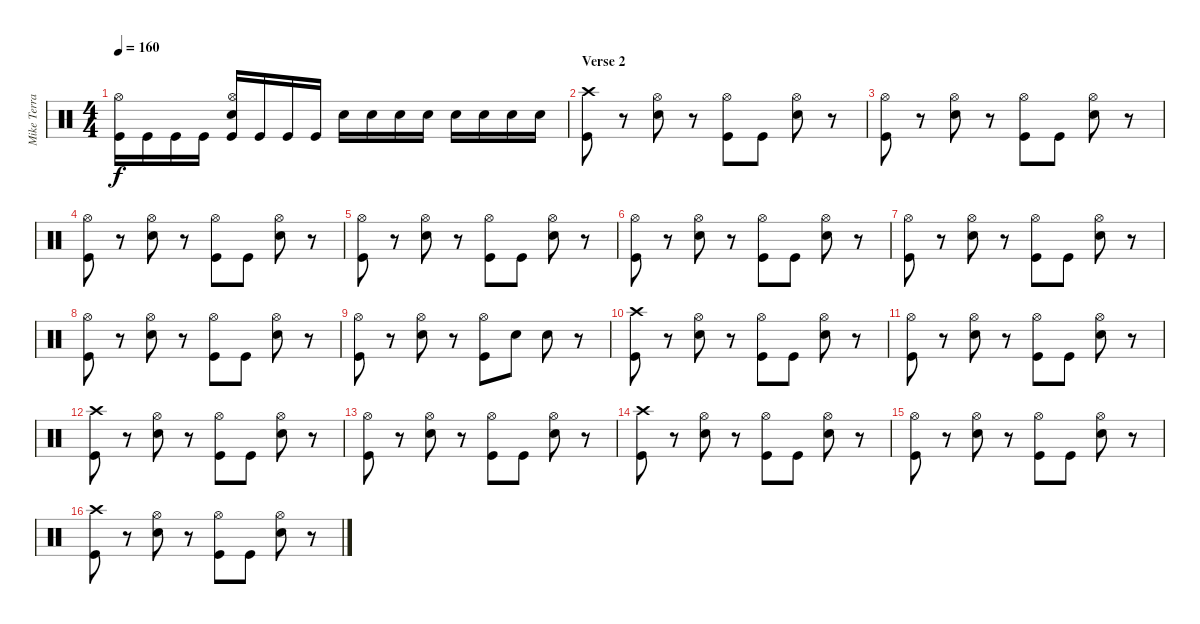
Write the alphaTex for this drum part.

\track ("Mike Terrana - Drums" "Mike Terra") {instrument percussion}
\staff {score}
\articulation defaults
\ts (4 4)
\tempo 160
\clef neutral
\ks c
("Kick (hit)" "Hi-Hat (open)").16{dy f} "Kick (hit)".16 "Kick (hit)".16 "Kick (hit)".16 ("Kick (hit)" "Electric Snare (hit)" "Hi-Hat (open)").16 "Kick (hit)".16 "Kick (hit)".16 "Kick (hit)".16 "Electric Snare (hit)".16 "Electric Snare (hit)".16 "Electric Snare (hit)".16 "Electric Snare (hit)".16 "Electric Snare (hit)".16 "Electric Snare (hit)".16 "Electric Snare (hit)".16 "Electric Snare (hit)".16 |
\section ("" "Verse 2")
("Kick (hit)" "Crash high (hit)").8 r.8 ("Electric Snare (hit)" "Hi-Hat (open)").8 r.8 ("Kick (hit)" "Hi-Hat (open)").8 "Kick (hit)".8 ("Electric Snare (hit)" "Hi-Hat (open)").8 r.8 |
("Kick (hit)" "Hi-Hat (open)").8 r.8 ("Electric Snare (hit)" "Hi-Hat (open)").8 r.8 ("Kick (hit)" "Hi-Hat (open)").8 "Kick (hit)".8 ("Electric Snare (hit)" "Hi-Hat (open)").8 r.8 |
("Kick (hit)" "Hi-Hat (open)").8 r.8 ("Electric Snare (hit)" "Hi-Hat (open)").8 r.8 ("Kick (hit)" "Hi-Hat (open)").8 "Kick (hit)".8 ("Electric Snare (hit)" "Hi-Hat (open)").8 r.8 |
("Kick (hit)" "Hi-Hat (open)").8 r.8 ("Electric Snare (hit)" "Hi-Hat (open)").8 r.8 ("Kick (hit)" "Hi-Hat (open)").8 "Kick (hit)".8 ("Electric Snare (hit)" "Hi-Hat (open)").8 r.8 |
("Kick (hit)" "Hi-Hat (open)").8 r.8 ("Electric Snare (hit)" "Hi-Hat (open)").8 r.8 ("Kick (hit)" "Hi-Hat (open)").8 "Kick (hit)".8 ("Electric Snare (hit)" "Hi-Hat (open)").8 r.8 |
("Kick (hit)" "Hi-Hat (open)").8 r.8 ("Electric Snare (hit)" "Hi-Hat (open)").8 r.8 ("Kick (hit)" "Hi-Hat (open)").8 "Kick (hit)".8 ("Electric Snare (hit)" "Hi-Hat (open)").8 r.8 |
("Kick (hit)" "Hi-Hat (open)").8 r.8 ("Electric Snare (hit)" "Hi-Hat (open)").8 r.8 ("Kick (hit)" "Hi-Hat (open)").8 "Kick (hit)".8 ("Electric Snare (hit)" "Hi-Hat (open)").8 r.8 |
("Kick (hit)" "Hi-Hat (open)").8 r.8 ("Electric Snare (hit)" "Hi-Hat (open)").8 r.8 ("Kick (hit)" "Hi-Hat (open)").8 "Electric Snare (hit)".8 "Electric Snare (hit)".8 r.8 |
("Kick (hit)" "Crash high (hit)").8 r.8 ("Electric Snare (hit)" "Hi-Hat (open)").8 r.8 ("Kick (hit)" "Hi-Hat (open)").8 "Kick (hit)".8 ("Electric Snare (hit)" "Hi-Hat (open)").8 r.8 |
("Kick (hit)" "Hi-Hat (open)").8 r.8 ("Electric Snare (hit)" "Hi-Hat (open)").8 r.8 ("Kick (hit)" "Hi-Hat (open)").8 "Kick (hit)".8 ("Electric Snare (hit)" "Hi-Hat (open)").8 r.8 |
("Kick (hit)" "Crash high (hit)").8 r.8 ("Electric Snare (hit)" "Hi-Hat (open)").8 r.8 ("Kick (hit)" "Hi-Hat (open)").8 "Kick (hit)".8 ("Electric Snare (hit)" "Hi-Hat (open)").8 r.8 |
("Kick (hit)" "Hi-Hat (open)").8 r.8 ("Electric Snare (hit)" "Hi-Hat (open)").8 r.8 ("Kick (hit)" "Hi-Hat (open)").8 "Kick (hit)".8 ("Electric Snare (hit)" "Hi-Hat (open)").8 r.8 |
("Kick (hit)" "Crash high (hit)").8 r.8 ("Electric Snare (hit)" "Hi-Hat (open)").8 r.8 ("Kick (hit)" "Hi-Hat (open)").8 "Kick (hit)".8 ("Electric Snare (hit)" "Hi-Hat (open)").8 r.8 |
("Kick (hit)" "Hi-Hat (open)").8 r.8 ("Electric Snare (hit)" "Hi-Hat (open)").8 r.8 ("Kick (hit)" "Hi-Hat (open)").8 "Kick (hit)".8 ("Electric Snare (hit)" "Hi-Hat (open)").8 r.8 |
("Kick (hit)" "Crash high (hit)").8 r.8 ("Electric Snare (hit)" "Hi-Hat (open)").8 r.8 ("Kick (hit)" "Hi-Hat (open)").8 "Kick (hit)".8 ("Electric Snare (hit)" "Hi-Hat (open)").8 r.8
